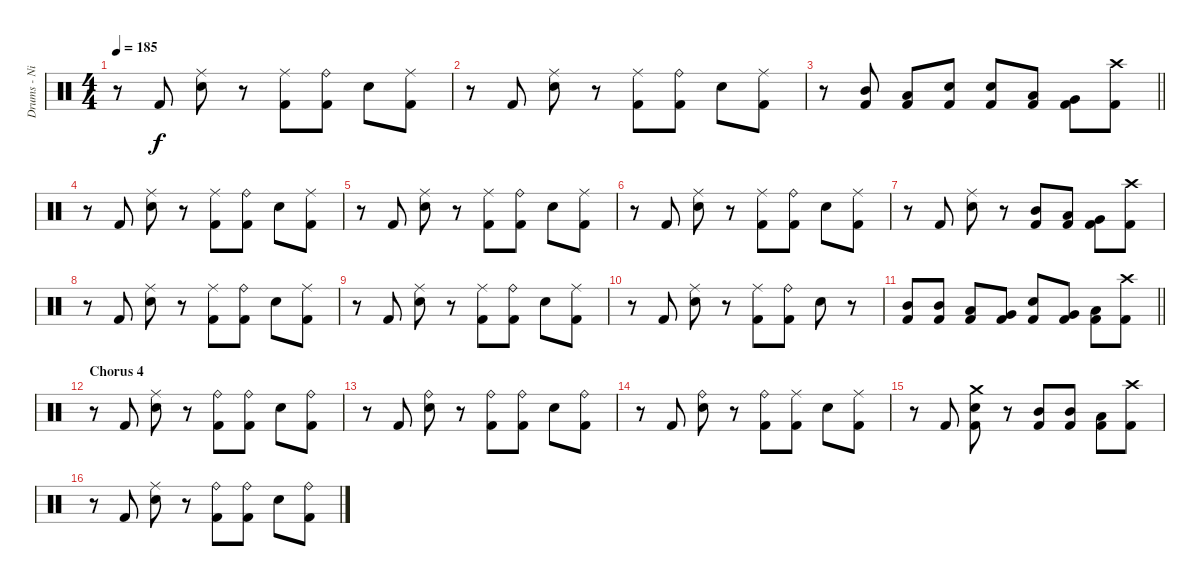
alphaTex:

\track ("Drums - Nicko" "Drums - Ni") {instrument percussion}
\staff {score}
\articulation defaults
\ts (4 4)
\tempo 185
\clef neutral
\ks c
r.8{dy f} "Kick (hit) 2".8 ("Ride (middle)" "Snare (hit) 2").8 r.8 ("Ride (middle)" "Kick (hit) 2").8 ("Ride (bell)" "Kick (hit) 2").8 "Snare (hit) 2".8 ("Ride (middle)" "Kick (hit) 2").8 |
r.8 "Kick (hit) 2".8 ("Ride (middle)" "Snare (hit) 2").8 r.8 ("Ride (middle)" "Kick (hit) 2").8 ("Ride (bell)" "Kick (hit) 2").8 "Snare (hit) 2".8 ("Ride (middle)" "Kick (hit) 2").8 |
\barLineRight lightlight
r.8 ("Mid Tom (hit)" "Kick (hit) 2").8 ("Low Tom (hit)" "Kick (hit) 2").8 ("Snare (hit) 2" "Kick (hit) 2").8 ("Snare (hit) 2" "Kick (hit) 2").8 ("Low Tom (hit)" "Kick (hit) 2").8 ("Very Low Tom (hit)" "Kick (hit) 2").8 ("Crash high (hit)" "Kick (hit) 2").8 |
\section ("" "")
r.8 "Kick (hit) 2".8 ("Ride (middle)" "Snare (hit) 2").8 r.8 ("Ride (middle)" "Kick (hit) 2").8 ("Ride (bell)" "Kick (hit) 2").8 "Snare (hit) 2".8 ("Ride (middle)" "Kick (hit) 2").8 |
r.8 "Kick (hit) 2".8 ("Ride (middle)" "Snare (hit) 2").8 r.8 ("Ride (middle)" "Kick (hit) 2").8 ("Ride (bell)" "Kick (hit) 2").8 "Snare (hit) 2".8 ("Ride (middle)" "Kick (hit) 2").8 |
r.8 "Kick (hit) 2".8 ("Ride (middle)" "Snare (hit) 2").8 r.8 ("Ride (middle)" "Kick (hit) 2").8 ("Ride (bell)" "Kick (hit) 2").8 "Snare (hit) 2".8 ("Ride (middle)" "Kick (hit) 2").8 |
r.8 "Kick (hit) 2".8 ("Ride (middle)" "Snare (hit) 2").8 r.8 ("Mid Tom (hit)" "Kick (hit) 2").8 ("Low Tom (hit)" "Kick (hit) 2").8 ("Very Low Tom (hit)" "Kick (hit) 2").8 ("Crash high (hit)" "Kick (hit) 2").8 |
r.8 "Kick (hit) 2".8 ("Ride (middle)" "Snare (hit) 2").8 r.8 ("Ride (middle)" "Kick (hit) 2").8 ("Ride (bell)" "Kick (hit) 2").8 "Snare (hit) 2".8 ("Ride (middle)" "Kick (hit) 2").8 |
r.8 "Kick (hit) 2".8 ("Ride (middle)" "Snare (hit) 2").8 r.8 ("Ride (middle)" "Kick (hit) 2").8 ("Ride (bell)" "Kick (hit) 2").8 "Snare (hit) 2".8 ("Ride (middle)" "Kick (hit) 2").8 |
r.8 "Kick (hit) 2".8 ("Ride (middle)" "Snare (hit) 2").8 r.8 ("Ride (middle)" "Kick (hit) 2").8 ("Ride (bell)" "Kick (hit) 2").8 "Snare (hit) 2".8 r.8 |
\barLineRight lightlight
("Mid Tom (hit)" "Kick (hit) 2").8 ("Mid Tom (hit)" "Kick (hit) 2").8 ("Low Tom (hit)" "Kick (hit) 2").8 ("Very Low Tom (hit)" "Kick (hit) 2").8 ("Snare (hit) 2" "Kick (hit) 2").8 ("Very Low Tom (hit)" "Kick (hit) 2").8 ("Low Floor Tom (hit)" "Kick (hit) 2").8 ("Crash high (hit)" "Kick (hit) 2").8 |
\section ("" "Chorus 4")
r.8 "Kick (hit) 2".8 ("Ride (middle)" "Snare (hit) 2").8 r.8 ("Ride (bell)" "Kick (hit) 2").8 ("Ride (bell)" "Kick (hit) 2").8 "Snare (hit) 2".8 ("Ride (bell)" "Kick (hit) 2").8 |
r.8 "Kick (hit) 2".8 ("Ride (bell)" "Snare (hit) 2").8 r.8 ("Ride (bell)" "Kick (hit) 2").8 ("Ride (bell)" "Kick (hit) 2").8 "Snare (hit) 2".8 ("Ride (bell)" "Kick (hit) 2").8 |
r.8 "Kick (hit) 2".8 ("Ride (bell)" "Snare (hit) 2").8 r.8 ("Ride (bell)" "Kick (hit) 2").8 ("Ride (middle)" "Kick (hit) 2").8 "Snare (hit) 2".8 ("Ride (middle)" "Kick (hit) 2").8 |
r.8 "Kick (hit) 2".8 ("Crash medium (hit)" "Snare (hit) 2" "Kick (hit) 2").8 r.8 ("Mid Tom (hit)" "Kick (hit) 2").8 ("Mid Tom (hit)" "Kick (hit) 2").8 ("Low Tom (hit)" "Kick (hit) 2").8 ("Crash high (hit)" "Kick (hit) 2").8 |
r.8 "Kick (hit) 2".8 ("Ride (middle)" "Snare (hit) 2").8 r.8 ("Ride (bell)" "Kick (hit) 2").8 ("Ride (bell)" "Kick (hit) 2").8 "Snare (hit) 2".8 ("Ride (bell)" "Kick (hit) 2").8
